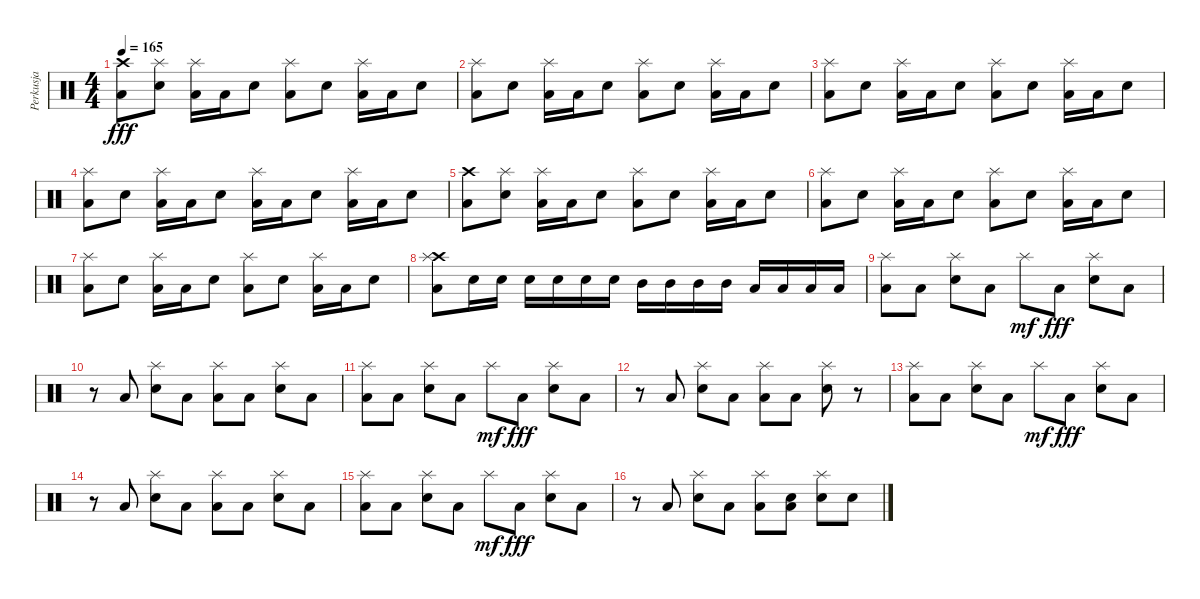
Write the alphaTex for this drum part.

\track ("Perkusja" "Perkusja") {instrument percussion}
\staff {score}
\articulation defaults
\ts (4 4)
\tempo 165
\clef neutral
\ks c
("Crash high (hit)" "Low Tom (hit)").8{dy fff} ("Splash (hit)" "Electric Snare (hit)").8 ("Splash (hit)" "Low Tom (hit)").16 "Low Tom (hit)".16 "Electric Snare (hit)".8 ("Splash (hit)" "Low Tom (hit)").8 "Electric Snare (hit)".8 ("Splash (hit)" "Low Tom (hit)").16 "Low Tom (hit)".16 "Electric Snare (hit)".8 |
("Splash (hit)" "Low Tom (hit)").8 "Electric Snare (hit)".8 ("Splash (hit)" "Low Tom (hit)").16 "Low Tom (hit)".16 "Electric Snare (hit)".8 ("Splash (hit)" "Low Tom (hit)").8 "Electric Snare (hit)".8 ("Splash (hit)" "Low Tom (hit)").16 "Low Tom (hit)".16 "Electric Snare (hit)".8 |
("Splash (hit)" "Low Tom (hit)").8 "Electric Snare (hit)".8 ("Splash (hit)" "Low Tom (hit)").16 "Low Tom (hit)".16 "Electric Snare (hit)".8 ("Splash (hit)" "Low Tom (hit)").8 "Electric Snare (hit)".8 ("Splash (hit)" "Low Tom (hit)").16 "Low Tom (hit)".16 "Electric Snare (hit)".8 |
("Splash (hit)" "Low Tom (hit)").8 "Electric Snare (hit)".8 ("Splash (hit)" "Low Tom (hit)").16 "Low Tom (hit)".16 "Electric Snare (hit)".8 ("Splash (hit)" "Low Tom (hit)").16 "Low Tom (hit)".16 "Electric Snare (hit)".8 ("Splash (hit)" "Low Tom (hit)").16 "Low Tom (hit)".16 "Electric Snare (hit)".8 |
("Crash high (hit)" "Low Tom (hit)").8 ("Splash (hit)" "Electric Snare (hit)").8 ("Splash (hit)" "Low Tom (hit)").16 "Low Tom (hit)".16 "Electric Snare (hit)".8 ("Splash (hit)" "Low Tom (hit)").8 "Electric Snare (hit)".8 ("Splash (hit)" "Low Tom (hit)").16 "Low Tom (hit)".16 "Electric Snare (hit)".8 |
("Splash (hit)" "Low Tom (hit)").8 "Electric Snare (hit)".8 ("Splash (hit)" "Low Tom (hit)").16 "Low Tom (hit)".16 "Electric Snare (hit)".8 ("Splash (hit)" "Low Tom (hit)").8 "Electric Snare (hit)".8 ("Splash (hit)" "Low Tom (hit)").16 "Low Tom (hit)".16 "Electric Snare (hit)".8 |
("Splash (hit)" "Low Tom (hit)").8 "Electric Snare (hit)".8 ("Splash (hit)" "Low Tom (hit)").16 "Low Tom (hit)".16 "Electric Snare (hit)".8 ("Splash (hit)" "Low Tom (hit)").8 "Electric Snare (hit)".8 ("Splash (hit)" "Low Tom (hit)").16 "Low Tom (hit)".16 "Electric Snare (hit)".8 |
("Crash high (hit)" "Splash (hit)" "Low Tom (hit)").8 "Electric Snare (hit)".16 "Electric Snare (hit)".16 "Electric Snare (hit)".16 "Electric Snare (hit)".16 "Electric Snare (hit)".16 "Electric Snare (hit)".16 "Mid Tom (hit)".16 "Mid Tom (hit)".16 "Mid Tom (hit)".16 "Mid Tom (hit)".16 "Low Tom (hit)".16 "Low Tom (hit)".16 "Low Tom (hit)".16 "Low Tom (hit)".16 |
("Splash (hit)" "Low Tom (hit)").8 "Low Tom (hit)".8 ("Splash (hit)" "Electric Snare (hit)").8 "Low Tom (hit)".8 "Splash (hit)".8{dy mf} "Low Tom (hit)".8{dy fff} ("Splash (hit)" "Electric Snare (hit)").8 "Low Tom (hit)".8 |
r.8 "Low Tom (hit)".8 ("Splash (hit)" "Electric Snare (hit)").8 "Low Tom (hit)".8 ("Splash (hit)" "Low Tom (hit)").8 "Low Tom (hit)".8 ("Splash (hit)" "Electric Snare (hit)").8 "Low Tom (hit)".8 |
("Splash (hit)" "Low Tom (hit)").8 "Low Tom (hit)".8 ("Splash (hit)" "Electric Snare (hit)").8 "Low Tom (hit)".8 "Splash (hit)".8{dy mf} "Low Tom (hit)".8{dy fff} ("Splash (hit)" "Electric Snare (hit)").8 "Low Tom (hit)".8 |
r.8 "Low Tom (hit)".8 ("Splash (hit)" "Electric Snare (hit)").8 "Low Tom (hit)".8 ("Splash (hit)" "Low Tom (hit)").8 "Low Tom (hit)".8 ("Splash (hit)" "Electric Snare (hit)").8 r.8 |
("Splash (hit)" "Low Tom (hit)").8 "Low Tom (hit)".8 ("Splash (hit)" "Electric Snare (hit)").8 "Low Tom (hit)".8 "Splash (hit)".8{dy mf} "Low Tom (hit)".8{dy fff} ("Splash (hit)" "Electric Snare (hit)").8 "Low Tom (hit)".8 |
r.8 "Low Tom (hit)".8 ("Splash (hit)" "Electric Snare (hit)").8 "Low Tom (hit)".8 ("Splash (hit)" "Low Tom (hit)").8 "Low Tom (hit)".8 ("Splash (hit)" "Electric Snare (hit)").8 "Low Tom (hit)".8 |
("Splash (hit)" "Low Tom (hit)").8 "Low Tom (hit)".8 ("Splash (hit)" "Electric Snare (hit)").8 "Low Tom (hit)".8 "Splash (hit)".8{dy mf} "Low Tom (hit)".8{dy fff} ("Splash (hit)" "Electric Snare (hit)").8 "Low Tom (hit)".8 |
r.8 "Low Tom (hit)".8 ("Splash (hit)" "Electric Snare (hit)").8 "Low Tom (hit)".8 ("Splash (hit)" "Low Tom (hit)").8 ("Electric Snare (hit)" "Low Tom (hit)").8 ("Splash (hit)" "Electric Snare (hit)").8 "Electric Snare (hit)".8
